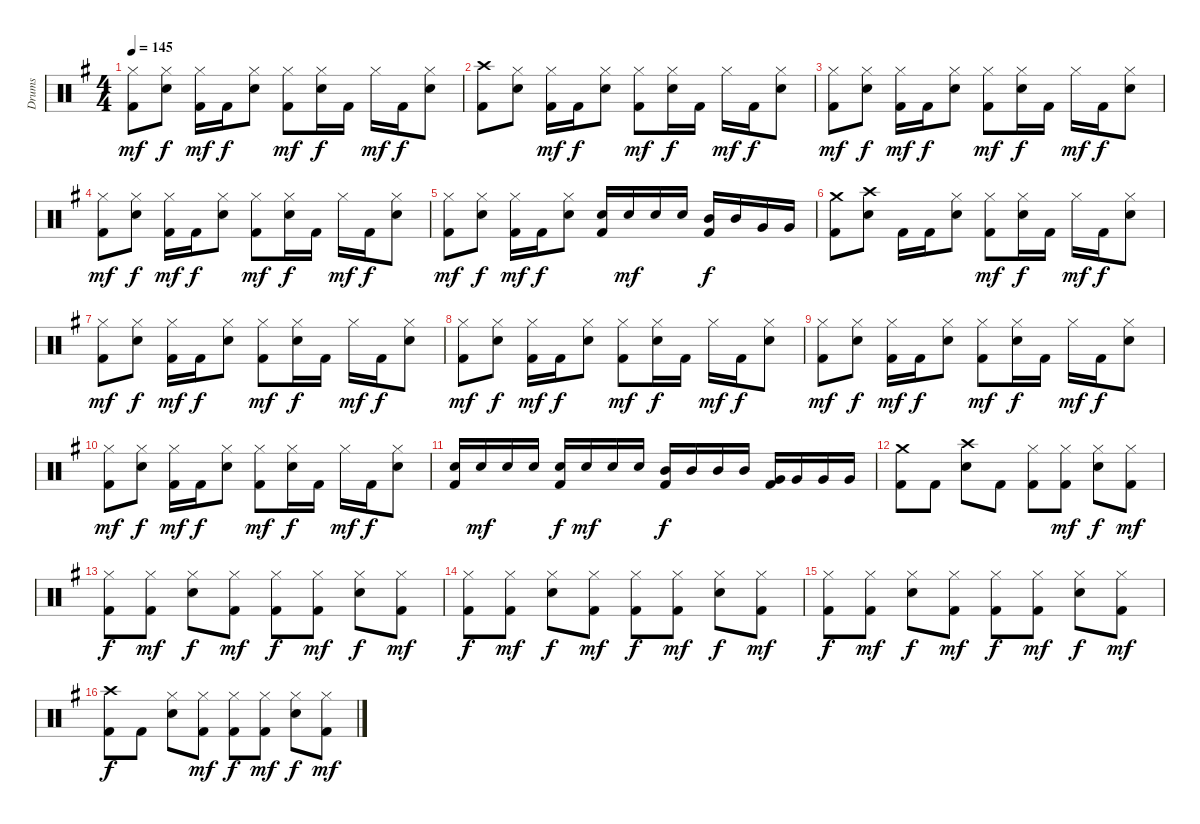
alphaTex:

\track ("Drums" "Drums") {instrument percussion}
\staff {score}
\articulation defaults
\ts (4 4)
\tempo 145
\clef neutral
\ks eminor
("Hi-Hat (closed)" "Kick (hit) 2").8{dy mf} ("Hi-Hat (closed)" "Electric Snare (hit)").8{dy f} ("Hi-Hat (closed)" "Kick (hit) 2").16{dy mf} "Kick (hit) 2".16{dy f} ("Hi-Hat (closed)" "Electric Snare (hit)").8 ("Hi-Hat (closed)" "Kick (hit) 2").8{dy mf} ("Hi-Hat (closed)" "Electric Snare (hit)").16{dy f} "Kick (hit) 2".16 "Hi-Hat (closed)".16{dy mf} "Kick (hit) 2".16{dy f} ("Hi-Hat (closed)" "Electric Snare (hit)").8 |
("Crash high (hit)" "Kick (hit) 2").8 ("Hi-Hat (closed)" "Electric Snare (hit)").8 ("Hi-Hat (closed)" "Kick (hit) 2").16{dy mf} "Kick (hit) 2".16{dy f} ("Hi-Hat (closed)" "Electric Snare (hit)").8 ("Hi-Hat (closed)" "Kick (hit) 2").8{dy mf} ("Hi-Hat (closed)" "Electric Snare (hit)").16{dy f} "Kick (hit) 2".16 "Hi-Hat (closed)".16{dy mf} "Kick (hit) 2".16{dy f} ("Hi-Hat (closed)" "Electric Snare (hit)").8 |
("Hi-Hat (closed)" "Kick (hit) 2").8{dy mf} ("Hi-Hat (closed)" "Electric Snare (hit)").8{dy f} ("Hi-Hat (closed)" "Kick (hit) 2").16{dy mf} "Kick (hit) 2".16{dy f} ("Hi-Hat (closed)" "Electric Snare (hit)").8 ("Hi-Hat (closed)" "Kick (hit) 2").8{dy mf} ("Hi-Hat (closed)" "Electric Snare (hit)").16{dy f} "Kick (hit) 2".16 "Hi-Hat (closed)".16{dy mf} "Kick (hit) 2".16{dy f} ("Hi-Hat (closed)" "Electric Snare (hit)").8 |
("Hi-Hat (closed)" "Kick (hit) 2").8{dy mf} ("Hi-Hat (closed)" "Electric Snare (hit)").8{dy f} ("Hi-Hat (closed)" "Kick (hit) 2").16{dy mf} "Kick (hit) 2".16{dy f} ("Hi-Hat (closed)" "Electric Snare (hit)").8 ("Hi-Hat (closed)" "Kick (hit) 2").8{dy mf} ("Hi-Hat (closed)" "Electric Snare (hit)").16{dy f} "Kick (hit) 2".16 "Hi-Hat (closed)".16{dy mf} "Kick (hit) 2".16{dy f} ("Hi-Hat (closed)" "Electric Snare (hit)").8 |
("Hi-Hat (closed)" "Kick (hit) 2").8{dy mf} ("Hi-Hat (closed)" "Electric Snare (hit)").8{dy f} ("Hi-Hat (closed)" "Kick (hit) 2").16{dy mf} "Kick (hit) 2".16{dy f} ("Hi-Hat (closed)" "Electric Snare (hit)").8 ("Electric Snare (hit)" "Kick (hit) 2").16 "Electric Snare (hit)".16{dy mf} "Electric Snare (hit)".16 "Electric Snare (hit)".16 ("Mid Tom (hit)" "Kick (hit) 2").16{dy f} "Mid Tom (hit)".16 "Very Low Tom (hit)".16 "Very Low Tom (hit)".16 |
("Crash medium (hit)" "Kick (hit) 2").8 ("Crash high (hit)" "Electric Snare (hit)").8 "Kick (hit) 2".16 "Kick (hit) 2".16 ("Hi-Hat (closed)" "Electric Snare (hit)").8 ("Hi-Hat (closed)" "Kick (hit) 2").8{dy mf} ("Hi-Hat (closed)" "Electric Snare (hit)").16{dy f} "Kick (hit) 2".16 "Hi-Hat (closed)".16{dy mf} "Kick (hit) 2".16{dy f} ("Hi-Hat (closed)" "Electric Snare (hit)").8 |
("Hi-Hat (closed)" "Kick (hit) 2").8{dy mf} ("Hi-Hat (closed)" "Electric Snare (hit)").8{dy f} ("Hi-Hat (closed)" "Kick (hit) 2").16{dy mf} "Kick (hit) 2".16{dy f} ("Hi-Hat (closed)" "Electric Snare (hit)").8 ("Hi-Hat (closed)" "Kick (hit) 2").8{dy mf} ("Hi-Hat (closed)" "Electric Snare (hit)").16{dy f} "Kick (hit) 2".16 "Hi-Hat (closed)".16{dy mf} "Kick (hit) 2".16{dy f} ("Hi-Hat (closed)" "Electric Snare (hit)").8 |
("Hi-Hat (closed)" "Kick (hit) 2").8{dy mf} ("Hi-Hat (closed)" "Electric Snare (hit)").8{dy f} ("Hi-Hat (closed)" "Kick (hit) 2").16{dy mf} "Kick (hit) 2".16{dy f} ("Hi-Hat (closed)" "Electric Snare (hit)").8 ("Hi-Hat (closed)" "Kick (hit) 2").8{dy mf} ("Hi-Hat (closed)" "Electric Snare (hit)").16{dy f} "Kick (hit) 2".16 "Hi-Hat (closed)".16{dy mf} "Kick (hit) 2".16{dy f} ("Hi-Hat (closed)" "Electric Snare (hit)").8 |
("Hi-Hat (closed)" "Kick (hit) 2").8{dy mf} ("Hi-Hat (closed)" "Electric Snare (hit)").8{dy f} ("Hi-Hat (closed)" "Kick (hit) 2").16{dy mf} "Kick (hit) 2".16{dy f} ("Hi-Hat (closed)" "Electric Snare (hit)").8 ("Hi-Hat (closed)" "Kick (hit) 2").8{dy mf} ("Hi-Hat (closed)" "Electric Snare (hit)").16{dy f} "Kick (hit) 2".16 "Hi-Hat (closed)".16{dy mf} "Kick (hit) 2".16{dy f} ("Hi-Hat (closed)" "Electric Snare (hit)").8 |
("Hi-Hat (closed)" "Kick (hit) 2").8{dy mf} ("Hi-Hat (closed)" "Electric Snare (hit)").8{dy f} ("Hi-Hat (closed)" "Kick (hit) 2").16{dy mf} "Kick (hit) 2".16{dy f} ("Hi-Hat (closed)" "Electric Snare (hit)").8 ("Hi-Hat (closed)" "Kick (hit) 2").8{dy mf} ("Hi-Hat (closed)" "Electric Snare (hit)").16{dy f} "Kick (hit) 2".16 "Hi-Hat (closed)".16{dy mf} "Kick (hit) 2".16{dy f} ("Hi-Hat (closed)" "Electric Snare (hit)").8 |
("Electric Snare (hit)" "Kick (hit) 2").16 "Electric Snare (hit)".16{dy mf} "Electric Snare (hit)".16 "Electric Snare (hit)".16 ("Electric Snare (hit)" "Kick (hit) 2").16{dy f} "Electric Snare (hit)".16{dy mf} "Electric Snare (hit)".16 "Electric Snare (hit)".16 ("Mid Tom (hit)" "Kick (hit) 2").16{dy f} "Mid Tom (hit)".16 "Mid Tom (hit)".16 "Mid Tom (hit)".16 ("Very Low Tom (hit)" "Kick (hit) 2").16 "Very Low Tom (hit)".16 "Very Low Tom (hit)".16 "Very Low Tom (hit)".16 |
("Crash medium (hit)" "Kick (hit) 2").8 "Kick (hit) 2".8 ("Crash high (hit)" "Electric Snare (hit)").8 "Kick (hit) 2".8 ("Hi-Hat (closed)" "Kick (hit) 2").8 ("Hi-Hat (closed)" "Kick (hit) 2").8{dy mf} ("Hi-Hat (closed)" "Electric Snare (hit)").8{dy f} ("Hi-Hat (closed)" "Kick (hit) 2").8{dy mf} |
("Hi-Hat (closed)" "Kick (hit) 2").8{dy f} ("Hi-Hat (closed)" "Kick (hit) 2").8{dy mf} ("Hi-Hat (closed)" "Electric Snare (hit)").8{dy f} ("Hi-Hat (closed)" "Kick (hit) 2").8{dy mf} ("Hi-Hat (closed)" "Kick (hit) 2").8{dy f} ("Hi-Hat (closed)" "Kick (hit) 2").8{dy mf} ("Hi-Hat (closed)" "Electric Snare (hit)").8{dy f} ("Hi-Hat (closed)" "Kick (hit) 2").8{dy mf} |
("Hi-Hat (closed)" "Kick (hit) 2").8{dy f} ("Hi-Hat (closed)" "Kick (hit) 2").8{dy mf} ("Hi-Hat (closed)" "Electric Snare (hit)").8{dy f} ("Hi-Hat (closed)" "Kick (hit) 2").8{dy mf} ("Hi-Hat (closed)" "Kick (hit) 2").8{dy f} ("Hi-Hat (closed)" "Kick (hit) 2").8{dy mf} ("Hi-Hat (closed)" "Electric Snare (hit)").8{dy f} ("Hi-Hat (closed)" "Kick (hit) 2").8{dy mf} |
("Hi-Hat (closed)" "Kick (hit) 2").8{dy f} ("Hi-Hat (closed)" "Kick (hit) 2").8{dy mf} ("Hi-Hat (closed)" "Electric Snare (hit)").8{dy f} ("Hi-Hat (closed)" "Kick (hit) 2").8{dy mf} ("Hi-Hat (closed)" "Kick (hit) 2").8{dy f} ("Hi-Hat (closed)" "Kick (hit) 2").8{dy mf} ("Hi-Hat (closed)" "Electric Snare (hit)").8{dy f} ("Hi-Hat (closed)" "Kick (hit) 2").8{dy mf} |
("Crash high (hit)" "Kick (hit) 2").8{dy f} "Kick (hit) 2".8 ("Hi-Hat (closed)" "Electric Snare (hit)").8 ("Hi-Hat (closed)" "Kick (hit) 2").8{dy mf} ("Hi-Hat (closed)" "Kick (hit) 2").8{dy f} ("Hi-Hat (closed)" "Kick (hit) 2").8{dy mf} ("Hi-Hat (closed)" "Electric Snare (hit)").8{dy f} ("Hi-Hat (closed)" "Kick (hit) 2").8{dy mf}
